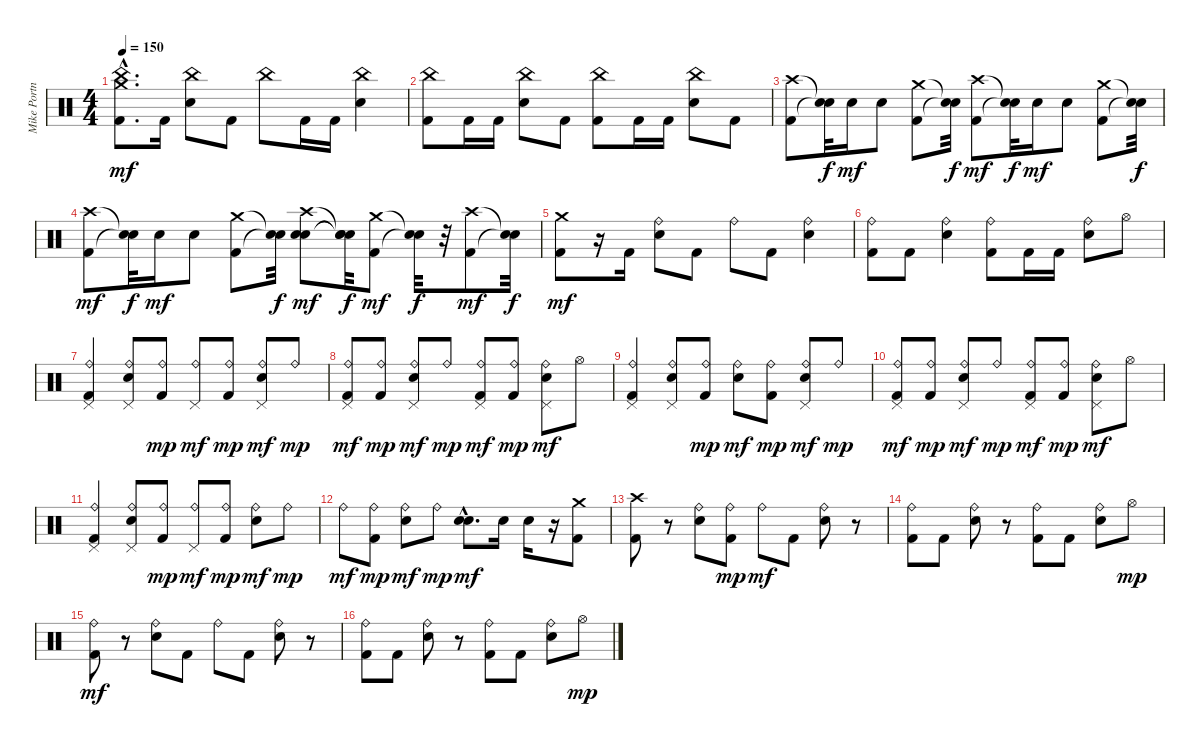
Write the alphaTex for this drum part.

\track ("Mike Portnoy: Drums" "Mike Portn") {instrument percussion}
\staff {score}
\articulation defaults
\ts (4 4)
\tempo 150
\clef neutral
\ks c
("Kick (hit) 2"{hac} "China (hit)" "Crash medium (hit)").8{d dy mf} "Kick (hit) 2".16 ("Electric Snare (hit)" "China (hit)").8 "Kick (hit) 2".8 "China (hit)".8 "Kick (hit) 2".16 "Kick (hit) 2".16 ("Electric Snare (hit)" "China (hit)").4 |
("Kick (hit) 2" "China (hit)").8 "Kick (hit) 2".16 "Kick (hit) 2".16 ("Electric Snare (hit)" "China (hit)").8 "Kick (hit) 2".8 ("Kick (hit) 2" "China (hit)").8 "Kick (hit) 2".16 "Kick (hit) 2".16 ("Electric Snare (hit)" "China (hit)").8 "Kick (hit) 2".8 |
("Kick (hit) 2" "Crash high (hit)").8 ("Snare (hit)"{t} "Snare (hit)"{t}).32{dy f} "Electric Snare (hit)".16{dy mf} "Electric Snare (hit)".8 ("Kick (hit) 2" "Crash medium (hit)").8 ("Snare (hit)"{t} "Snare (hit)"{t}).32{dy f} ("Kick (hit) 2" "Crash high (hit)").8{dy mf} ("Snare (hit)"{t} "Snare (hit)"{t}).32{dy f} "Electric Snare (hit)".16{dy mf} "Electric Snare (hit)".8 ("Kick (hit) 2" "Crash medium (hit)").8 ("Snare (hit)"{t} "Snare (hit)"{t}).32{dy f} |
("Kick (hit) 2" "Crash high (hit)").8{dy mf} ("Snare (hit)"{t} "Snare (hit)"{t}).32{dy f} "Electric Snare (hit)".16{dy mf} "Electric Snare (hit)".8 ("Kick (hit) 2" "Crash medium (hit)").8 ("Snare (hit)"{t} "Snare (hit)"{t}).32{dy f} ("Electric Snare (hit)" "Crash high (hit)" "Electric Snare (hit)").8{dy mf} ("Snare (hit)"{t} "Snare (hit)"{t} "Snare (hit)"{t}).32{dy f} ("Kick (hit) 2" "Crash medium (hit)").8{dy mf} ("Snare (hit)"{t} "Snare (hit)"{t}).32{dy f} r.32 ("Kick (hit) 2" "Crash high (hit)").8{dy mf} ("Snare (hit)"{t} "Snare (hit)"{t}).32{dy f} |
("Kick (hit) 2" "Crash medium (hit)").8{dy mf} r.16 "Kick (hit) 2".16 ("Electric Snare (hit)" "Ride (bell)").8 "Kick (hit) 2".8 "Ride (bell)".8 "Kick (hit) 2".8 ("Electric Snare (hit)" "Ride (bell)").4 |
("Kick (hit) 2" "Ride (bell)").8 "Kick (hit) 2".8 ("Electric Snare (hit)" "Ride (bell)").4 ("Kick (hit) 2" "Ride (bell)").8 "Kick (hit) 2".16 "Kick (hit) 2".16 ("Electric Snare (hit)" "Ride (bell)").8 "Hi-Hat (open)".8 |
("Kick (hit) 2" "Pedal Hi-Hat (hit)" "Ride (bell)").4 ("Electric Snare (hit)" "Pedal Hi-Hat (hit)" "Ride (bell)").8 ("Kick (hit) 2" "Ride (bell)").8{dy mp} ("Pedal Hi-Hat (hit)" "Ride (bell)").8{dy mf} ("Kick (hit) 2" "Ride (bell)").8{dy mp} ("Electric Snare (hit)" "Pedal Hi-Hat (hit)" "Ride (bell)").8{dy mf} "Ride (bell)".8{dy mp} |
("Kick (hit) 2" "Pedal Hi-Hat (hit)" "Ride (bell)").8{dy mf} ("Kick (hit) 2" "Ride (bell)").8{dy mp} ("Electric Snare (hit)" "Pedal Hi-Hat (hit)" "Ride (bell)").8{dy mf} "Ride (bell)".8{dy mp} ("Kick (hit) 2" "Pedal Hi-Hat (hit)" "Ride (bell)").8{dy mf} ("Kick (hit) 2" "Ride (bell)").8{dy mp} ("Electric Snare (hit)" "Pedal Hi-Hat (hit)" "Ride (bell)").8{dy mf} "Hi-Hat (open)".8 |
("Kick (hit) 2" "Pedal Hi-Hat (hit)" "Ride (bell)").4 ("Electric Snare (hit)" "Pedal Hi-Hat (hit)" "Ride (bell)").8 ("Kick (hit) 2" "Ride (bell)").8{dy mp} ("Electric Snare (hit)" "Ride (bell)").8{dy mf} ("Kick (hit) 2" "Ride (bell)").8{dy mp} ("Electric Snare (hit)" "Pedal Hi-Hat (hit)" "Ride (bell)").8{dy mf} "Ride (bell)".8{dy mp} |
("Kick (hit) 2" "Pedal Hi-Hat (hit)" "Ride (bell)").8{dy mf} ("Kick (hit) 2" "Ride (bell)").8{dy mp} ("Electric Snare (hit)" "Pedal Hi-Hat (hit)" "Ride (bell)").8{dy mf} "Ride (bell)".8{dy mp} ("Kick (hit) 2" "Pedal Hi-Hat (hit)" "Ride (bell)").8{dy mf} ("Kick (hit) 2" "Ride (bell)").8{dy mp} ("Electric Snare (hit)" "Pedal Hi-Hat (hit)" "Ride (bell)").8{dy mf} "Hi-Hat (open)".8 |
("Kick (hit) 2" "Pedal Hi-Hat (hit)" "Ride (bell)").4 ("Electric Snare (hit)" "Pedal Hi-Hat (hit)" "Ride (bell)").8 ("Kick (hit) 2" "Ride (bell)").8{dy mp} ("Pedal Hi-Hat (hit)" "Ride (bell)").8{dy mf} ("Kick (hit) 2" "Ride (bell)").8{dy mp} ("Electric Snare (hit)" "Ride (bell)").8{dy mf} "Ride (bell)".8{dy mp} |
"Ride (bell)".8{dy mf} ("Kick (hit) 2" "Ride (bell)").8{dy mp} ("Electric Snare (hit)" "Ride (bell)").8{dy mf} "Ride (bell)".8{dy mp} ("Electric Snare (hit)"{hac} "Electric Snare (hit)"{hac}).8{d dy mf} "Electric Snare (hit)".16 "Electric Snare (hit)".16 r.16 ("Kick (hit) 2" "Crash medium (hit)").8 |
("Kick (hit) 2" "Crash high (hit)").8 r.8 ("Electric Snare (hit)" "Ride (bell)").8 ("Kick (hit) 2" "Ride (bell)").8{dy mp} "Ride (bell)".8{dy mf} "Kick (hit) 2".8 ("Electric Snare (hit)" "Ride (bell)").8 r.8 |
("Kick (hit) 2" "Ride (bell)").8 "Kick (hit) 2".8 ("Electric Snare (hit)" "Ride (bell)").8 r.8 ("Kick (hit) 2" "Ride (bell)").8 "Kick (hit) 2".8 ("Electric Snare (hit)" "Ride (bell)").8 "Hi-Hat (open)".8{dy mp} |
("Kick (hit) 2" "Ride (bell)").8{dy mf} r.8 ("Electric Snare (hit)" "Ride (bell)").8 "Kick (hit) 2".8 "Ride (bell)".8 "Kick (hit) 2".8 ("Electric Snare (hit)" "Ride (bell)").8 r.8 |
("Kick (hit) 2" "Ride (bell)").8 "Kick (hit) 2".8 ("Electric Snare (hit)" "Ride (bell)").8 r.8 ("Kick (hit) 2" "Ride (bell)").8 "Kick (hit) 2".8 ("Electric Snare (hit)" "Ride (bell)").8 "Hi-Hat (open)".8{dy mp}
